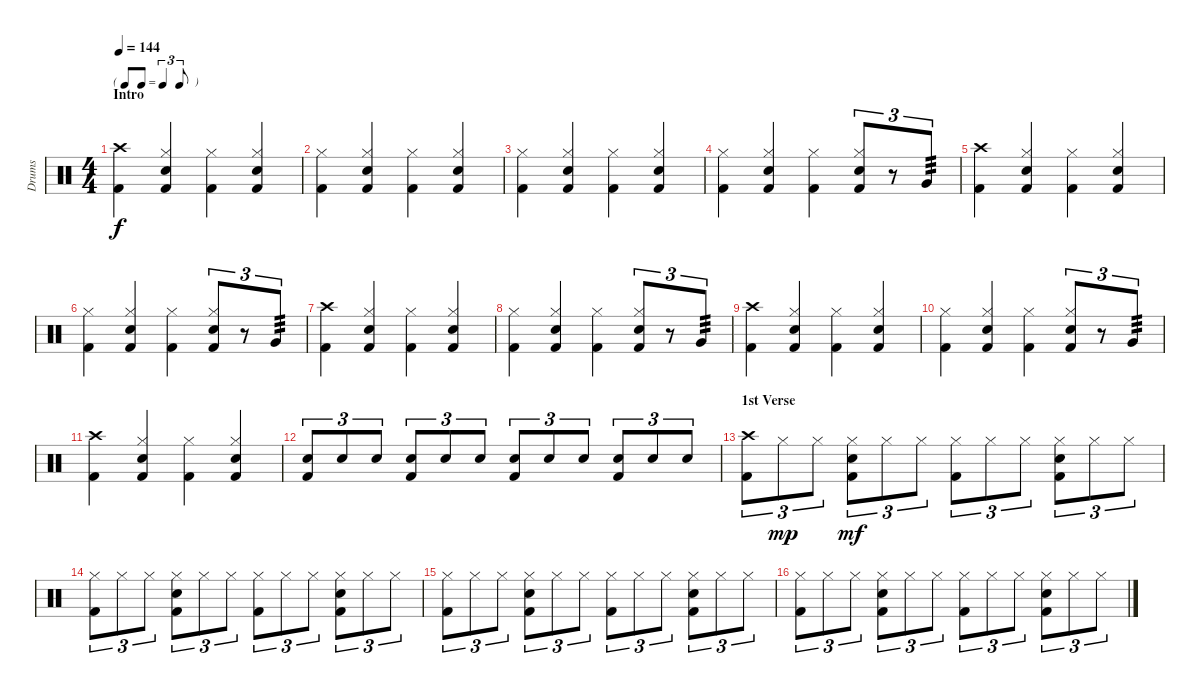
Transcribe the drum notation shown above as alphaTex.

\track ("Drums" "Drums") {instrument percussion}
\staff {score}
\articulation defaults
\ts (4 4)
\tf triplet8th
\section ("" "Intro")
\tempo 144
\clef neutral
\ks c
("Crash high (hit)" "Kick (hit) 2").4{dy f} ("Hi-Hat (closed)" "Snare (hit) 2" "Kick (hit) 2").4 ("Hi-Hat (closed)" "Kick (hit) 2").4 ("Hi-Hat (closed)" "Snare (hit) 2" "Kick (hit) 2").4 |
("Hi-Hat (closed)" "Kick (hit) 2").4 ("Hi-Hat (closed)" "Snare (hit) 2" "Kick (hit) 2").4 ("Hi-Hat (closed)" "Kick (hit) 2").4 ("Hi-Hat (closed)" "Snare (hit) 2" "Kick (hit) 2").4 |
("Hi-Hat (closed)" "Kick (hit) 2").4 ("Hi-Hat (closed)" "Snare (hit) 2" "Kick (hit) 2").4 ("Hi-Hat (closed)" "Kick (hit) 2").4 ("Hi-Hat (closed)" "Snare (hit) 2" "Kick (hit) 2").4 |
("Hi-Hat (closed)" "Kick (hit) 2").4 ("Hi-Hat (closed)" "Snare (hit) 2" "Kick (hit) 2").4 ("Hi-Hat (closed)" "Kick (hit) 2").4 ("Hi-Hat (closed)" "Snare (hit) 2" "Kick (hit) 2").8{tu (3 2)} r.8{tu (3 2)} "Very Low Tom (hit)".8{tu (3 2) tp 3} |
("Crash high (hit)" "Kick (hit) 2").4 ("Hi-Hat (closed)" "Snare (hit) 2" "Kick (hit) 2").4 ("Hi-Hat (closed)" "Kick (hit) 2").4 ("Hi-Hat (closed)" "Snare (hit) 2" "Kick (hit) 2").4 |
("Hi-Hat (closed)" "Kick (hit) 2").4 ("Hi-Hat (closed)" "Snare (hit) 2" "Kick (hit) 2").4 ("Hi-Hat (closed)" "Kick (hit) 2").4 ("Hi-Hat (closed)" "Snare (hit) 2" "Kick (hit) 2").8{tu (3 2)} r.8{tu (3 2)} "Very Low Tom (hit)".8{tu (3 2) tp 3} |
("Crash high (hit)" "Kick (hit) 2").4 ("Hi-Hat (closed)" "Snare (hit) 2" "Kick (hit) 2").4 ("Hi-Hat (closed)" "Kick (hit) 2").4 ("Hi-Hat (closed)" "Snare (hit) 2" "Kick (hit) 2").4 |
("Hi-Hat (closed)" "Kick (hit) 2").4 ("Hi-Hat (closed)" "Snare (hit) 2" "Kick (hit) 2").4 ("Hi-Hat (closed)" "Kick (hit) 2").4 ("Hi-Hat (closed)" "Snare (hit) 2" "Kick (hit) 2").8{tu (3 2)} r.8{tu (3 2)} "Very Low Tom (hit)".8{tu (3 2) tp 3} |
("Crash high (hit)" "Kick (hit) 2").4 ("Hi-Hat (closed)" "Snare (hit) 2" "Kick (hit) 2").4 ("Hi-Hat (closed)" "Kick (hit) 2").4 ("Hi-Hat (closed)" "Snare (hit) 2" "Kick (hit) 2").4 |
("Hi-Hat (closed)" "Kick (hit) 2").4 ("Hi-Hat (closed)" "Snare (hit) 2" "Kick (hit) 2").4 ("Hi-Hat (closed)" "Kick (hit) 2").4 ("Hi-Hat (closed)" "Snare (hit) 2" "Kick (hit) 2").8{tu (3 2)} r.8{tu (3 2)} "Very Low Tom (hit)".8{tu (3 2) tp 3} |
("Crash high (hit)" "Kick (hit) 2").4 ("Hi-Hat (closed)" "Snare (hit) 2" "Kick (hit) 2").4 ("Hi-Hat (closed)" "Kick (hit) 2").4 ("Hi-Hat (closed)" "Snare (hit) 2" "Kick (hit) 2").4 |
("Snare (hit) 2" "Kick (hit) 2").8{tu (3 2)} "Snare (hit) 2".8{tu (3 2)} "Snare (hit) 2".8{tu (3 2)} ("Snare (hit) 2" "Kick (hit) 2").8{tu (3 2)} "Snare (hit) 2".8{tu (3 2)} "Snare (hit) 2".8{tu (3 2)} ("Snare (hit) 2" "Kick (hit) 2").8{tu (3 2)} "Snare (hit) 2".8{tu (3 2)} "Snare (hit) 2".8{tu (3 2)} ("Snare (hit) 2" "Kick (hit) 2").8{tu (3 2)} "Snare (hit) 2".8{tu (3 2)} "Snare (hit) 2".8{tu (3 2)} |
\section ("" "1st Verse")
("Crash high (hit)" "Kick (hit) 2").8{tu (3 2)} "Hi-Hat (closed)".8{tu (3 2) dy mp} "Hi-Hat (closed)".8{tu (3 2)} ("Hi-Hat (closed)" "Snare (hit) 2" "Kick (hit) 2").8{tu (3 2) dy mf} "Hi-Hat (closed)".8{tu (3 2)} "Hi-Hat (closed)".8{tu (3 2)} ("Hi-Hat (closed)" "Kick (hit) 2").8{tu (3 2)} "Hi-Hat (closed)".8{tu (3 2)} "Hi-Hat (closed)".8{tu (3 2)} ("Hi-Hat (closed)" "Snare (hit) 2" "Kick (hit) 2").8{tu (3 2)} "Hi-Hat (closed)".8{tu (3 2)} "Hi-Hat (closed)".8{tu (3 2)} |
("Hi-Hat (closed)" "Kick (hit) 2").8{tu (3 2)} "Hi-Hat (closed)".8{tu (3 2)} "Hi-Hat (closed)".8{tu (3 2)} ("Hi-Hat (closed)" "Snare (hit) 2" "Kick (hit) 2").8{tu (3 2)} "Hi-Hat (closed)".8{tu (3 2)} "Hi-Hat (closed)".8{tu (3 2)} ("Hi-Hat (closed)" "Kick (hit) 2").8{tu (3 2)} "Hi-Hat (closed)".8{tu (3 2)} "Hi-Hat (closed)".8{tu (3 2)} ("Hi-Hat (closed)" "Snare (hit) 2" "Kick (hit) 2").8{tu (3 2)} "Hi-Hat (closed)".8{tu (3 2)} "Hi-Hat (closed)".8{tu (3 2)} |
("Hi-Hat (closed)" "Kick (hit) 2").8{tu (3 2)} "Hi-Hat (closed)".8{tu (3 2)} "Hi-Hat (closed)".8{tu (3 2)} ("Hi-Hat (closed)" "Snare (hit) 2" "Kick (hit) 2").8{tu (3 2)} "Hi-Hat (closed)".8{tu (3 2)} "Hi-Hat (closed)".8{tu (3 2)} ("Hi-Hat (closed)" "Kick (hit) 2").8{tu (3 2)} "Hi-Hat (closed)".8{tu (3 2)} "Hi-Hat (closed)".8{tu (3 2)} ("Hi-Hat (closed)" "Snare (hit) 2" "Kick (hit) 2").8{tu (3 2)} "Hi-Hat (closed)".8{tu (3 2)} "Hi-Hat (closed)".8{tu (3 2)} |
("Hi-Hat (closed)" "Kick (hit) 2").8{tu (3 2)} "Hi-Hat (closed)".8{tu (3 2)} "Hi-Hat (closed)".8{tu (3 2)} ("Hi-Hat (closed)" "Snare (hit) 2" "Kick (hit) 2").8{tu (3 2)} "Hi-Hat (closed)".8{tu (3 2)} "Hi-Hat (closed)".8{tu (3 2)} ("Hi-Hat (closed)" "Kick (hit) 2").8{tu (3 2)} "Hi-Hat (closed)".8{tu (3 2)} "Hi-Hat (closed)".8{tu (3 2)} ("Hi-Hat (closed)" "Snare (hit) 2" "Kick (hit) 2").8{tu (3 2)} "Hi-Hat (closed)".8{tu (3 2)} "Hi-Hat (closed)".8{tu (3 2)}
